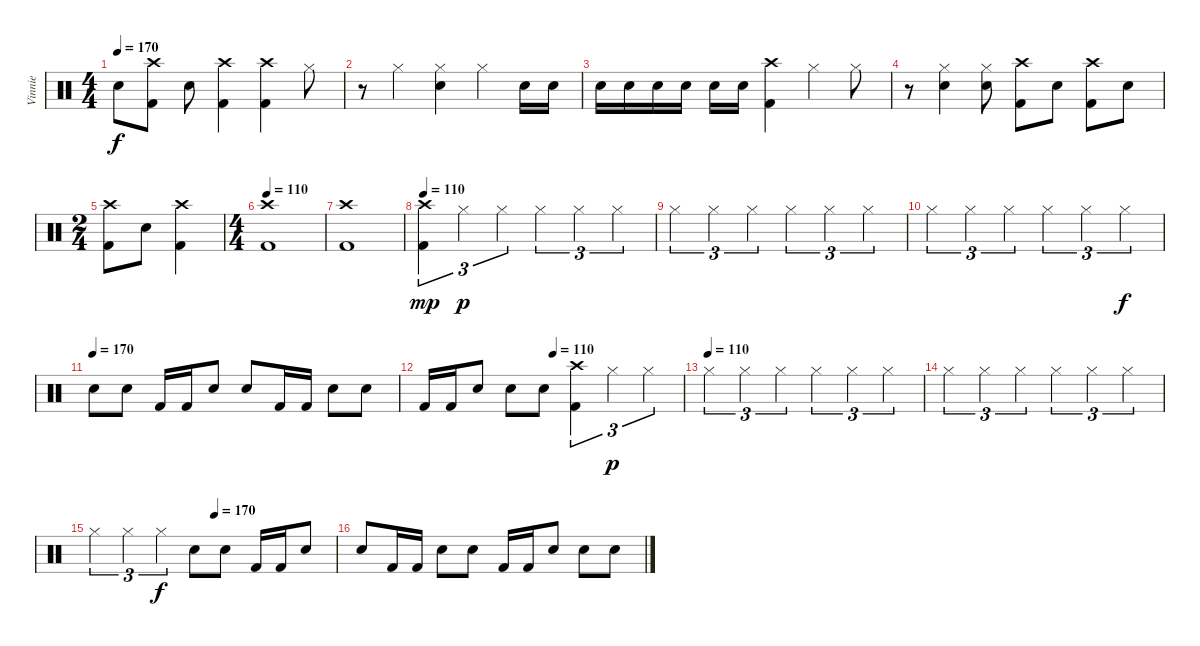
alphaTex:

\track ("Vinnie" "Vinnie") {instrument percussion}
\staff {score}
\articulation defaults
\ts (4 4)
\tempo 170
\clef neutral
\ks c "Electric Snare (hit)".8{dy f}
("Crash high (hit)" "Kick (hit) 2").8 "Electric Snare (hit)".8 ("Crash high (hit)" "Kick (hit) 2").4 ("Crash high (hit)" "Kick (hit) 2").4 "Hi-Hat (closed)".8 |
r.8 "Hi-Hat (closed)".4 ("Hi-Hat (closed)" "Electric Snare (hit)").4 "Hi-Hat (closed)".4 "Electric Snare (hit)".16 "Electric Snare (hit)".16 |
"Electric Snare (hit)".16 "Electric Snare (hit)".16 "Electric Snare (hit)".16 "Electric Snare (hit)".16 "Electric Snare (hit)".16 "Electric Snare (hit)".16 ("Crash high (hit)" "Kick (hit) 2").4 "Hi-Hat (closed)".4 "Hi-Hat (closed)".8 |
r.8 ("Hi-Hat (closed)" "Electric Snare (hit)").4 ("Hi-Hat (closed)" "Electric Snare (hit)").8 ("Crash high (hit)" "Kick (hit) 2").8 "Electric Snare (hit)".8 ("Crash high (hit)" "Kick (hit) 2").8 "Electric Snare (hit)".8 |
\ts (2 4)
("Crash high (hit)" "Kick (hit) 2").8 "Electric Snare (hit)".8 ("Crash high (hit)" "Kick (hit) 2").4 |
\ts (4 4)
\tempo 110
("Crash high (hit)" "Kick (hit) 2").1 |
("Crash high (hit)" "Kick (hit) 2").1 |
\tempo 110
("Crash high (hit)" "Kick (hit) 2").4{tu (3 2) dy mp} "Hi-Hat (closed)".4{tu (3 2) dy p} "Hi-Hat (closed)".4{tu (3 2)} "Hi-Hat (closed)".4{tu (3 2)} "Hi-Hat (closed)".4{tu (3 2)} "Hi-Hat (closed)".4{tu (3 2)} |
"Hi-Hat (closed)".4{tu (3 2)} "Hi-Hat (closed)".4{tu (3 2)} "Hi-Hat (closed)".4{tu (3 2)} "Hi-Hat (closed)".4{tu (3 2)} "Hi-Hat (closed)".4{tu (3 2)} "Hi-Hat (closed)".4{tu (3 2)} |
"Hi-Hat (closed)".4{tu (3 2)} "Hi-Hat (closed)".4{tu (3 2)} "Hi-Hat (closed)".4{tu (3 2)} "Hi-Hat (closed)".4{tu (3 2)} "Hi-Hat (closed)".4{tu (3 2)} "Hi-Hat (closed)".4{tu (3 2) dy f} |
\tempo (170)
"Electric Snare (hit)".8 "Electric Snare (hit)".8 "Kick (hit) 2".16 "Kick (hit) 2".16 "Electric Snare (hit)".8 "Electric Snare (hit)".8 "Kick (hit) 2".16 "Kick (hit) 2".16 "Electric Snare (hit)".8 "Electric Snare (hit)".8 |
\tempo (110 0.5)
"Kick (hit) 2".16 "Kick (hit) 2".16 "Electric Snare (hit)".8 "Electric Snare (hit)".8 "Electric Snare (hit)".8 ("Crash high (hit)" "Kick (hit) 2").4{tu (3 2)} "Hi-Hat (closed)".4{tu (3 2) dy p} "Hi-Hat (closed)".4{tu (3 2)} |
\tempo (110)
"Hi-Hat (closed)".4{tu (3 2)} "Hi-Hat (closed)".4{tu (3 2)} "Hi-Hat (closed)".4{tu (3 2)} "Hi-Hat (closed)".4{tu (3 2)} "Hi-Hat (closed)".4{tu (3 2)} "Hi-Hat (closed)".4{tu (3 2)} |
"Hi-Hat (closed)".4{tu (3 2)} "Hi-Hat (closed)".4{tu (3 2)} "Hi-Hat (closed)".4{tu (3 2)} "Hi-Hat (closed)".4{tu (3 2)} "Hi-Hat (closed)".4{tu (3 2)} "Hi-Hat (closed)".4{tu (3 2)} |
\tempo (170 0.5)
"Hi-Hat (closed)".4{tu (3 2)} "Hi-Hat (closed)".4{tu (3 2)} "Hi-Hat (closed)".4{tu (3 2) dy f} "Electric Snare (hit)".8 "Electric Snare (hit)".8 "Kick (hit) 2".16 "Kick (hit) 2".16 "Electric Snare (hit)".8 |
"Electric Snare (hit)".8 "Kick (hit) 2".16 "Kick (hit) 2".16 "Electric Snare (hit)".8 "Electric Snare (hit)".8 "Kick (hit) 2".16 "Kick (hit) 2".16 "Electric Snare (hit)".8 "Electric Snare (hit)".8 "Electric Snare (hit)".8
